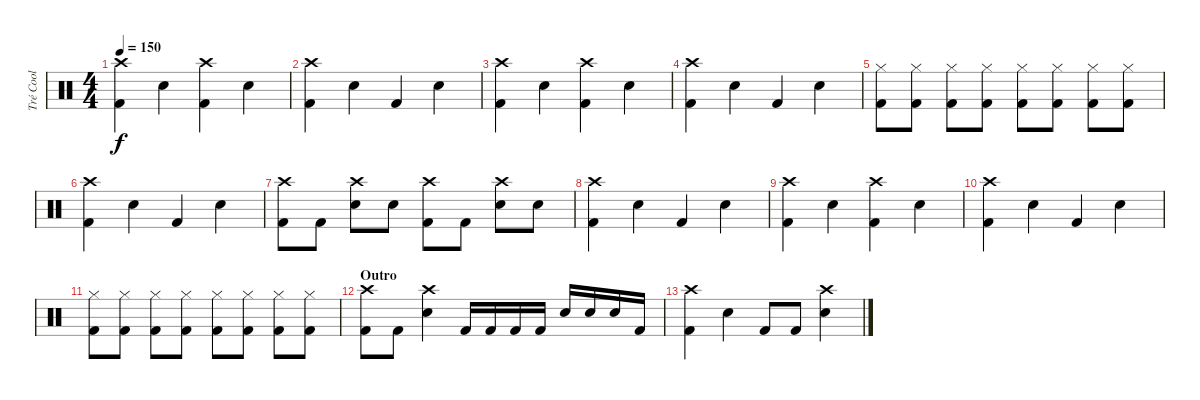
\track ("Tré Cool" "Tré Cool") {instrument percussion}
\staff {score}
\articulation defaults
\ts (4 4)
\tempo 150
\clef neutral
\ks c
("Kick (hit) 2" "Crash high (hit)").4{dy f} "Snare (hit) 2".4 ("Kick (hit) 2" "Crash high (hit)").4 "Snare (hit) 2".4 |
("Kick (hit) 2" "Crash high (hit)").4 "Snare (hit) 2".4 "Kick (hit) 2".4 "Snare (hit) 2".4 |
("Kick (hit) 2" "Crash high (hit)").4 "Snare (hit) 2".4 ("Kick (hit) 2" "Crash high (hit)").4 "Snare (hit) 2".4 |
("Kick (hit) 2" "Crash high (hit)").4 "Snare (hit) 2".4 "Kick (hit) 2".4 "Snare (hit) 2".4 |
("Kick (hit) 2" "Hi-Hat (closed)").8 ("Kick (hit) 2" "Hi-Hat (closed)").8 ("Kick (hit) 2" "Hi-Hat (closed)").8 ("Kick (hit) 2" "Hi-Hat (closed)").8 ("Kick (hit) 2" "Hi-Hat (closed)").8 ("Kick (hit) 2" "Hi-Hat (closed)").8 ("Kick (hit) 2" "Hi-Hat (closed)").8 ("Kick (hit) 2" "Hi-Hat (closed)").8 |
("Kick (hit) 2" "Crash high (hit)").4 "Snare (hit) 2".4 "Kick (hit) 2".4 "Snare (hit) 2".4 |
("Kick (hit) 2" "Crash high (hit)").8 "Kick (hit) 2".8 ("Snare (hit) 2" "Crash high (hit)").8 "Snare (hit) 2".8 ("Kick (hit) 2" "Crash high (hit)").8 "Kick (hit) 2".8 ("Snare (hit) 2" "Crash high (hit)").8 "Snare (hit) 2".8 |
("Kick (hit) 2" "Crash high (hit)").4 "Snare (hit) 2".4 "Kick (hit) 2".4 "Snare (hit) 2".4 |
("Kick (hit) 2" "Crash high (hit)").4 "Snare (hit) 2".4 ("Kick (hit) 2" "Crash high (hit)").4 "Snare (hit) 2".4 |
("Kick (hit) 2" "Crash high (hit)").4 "Snare (hit) 2".4 "Kick (hit) 2".4 "Snare (hit) 2".4 |
("Kick (hit) 2" "Hi-Hat (closed)").8 ("Kick (hit) 2" "Hi-Hat (closed)").8 ("Kick (hit) 2" "Hi-Hat (closed)").8 ("Kick (hit) 2" "Hi-Hat (closed)").8 ("Kick (hit) 2" "Hi-Hat (closed)").8 ("Kick (hit) 2" "Hi-Hat (closed)").8 ("Kick (hit) 2" "Hi-Hat (closed)").8 ("Kick (hit) 2" "Hi-Hat (closed)").8 |
\section ("" "Outro")
("Kick (hit) 2" "Crash high (hit)").8 "Kick (hit) 2".8 ("Snare (hit) 2" "Crash high (hit)").4 "Kick (hit) 2".16 "Kick (hit) 2".16 "Kick (hit) 2".16 "Kick (hit) 2".16 "Snare (hit) 2".16 "Snare (hit) 2".16 "Snare (hit) 2".16 "Kick (hit) 2".16 |
("Kick (hit) 2" "Crash high (hit)").4 "Snare (hit) 2".4 "Kick (hit) 2".8 "Kick (hit) 2".8 ("Snare (hit) 2" "Crash high (hit)").4
